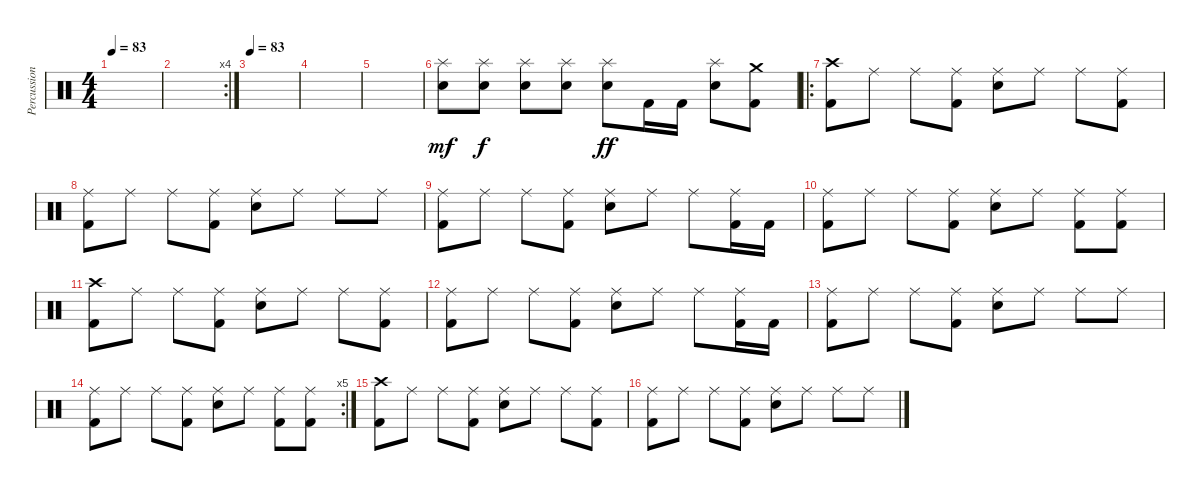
\track ("Percussions" "Percussion") {instrument percussion}
\staff {score}
\articulation defaults
\ts (4 4)
\tempo 83
\clef neutral
\ks c
|
\rc 4
|
\tempo 83
|
|
|
("Splash (hit)" "Electric Snare (hit)").8{dy mf} ("Splash (hit)" "Electric Snare (hit)").8{dy f} ("Splash (hit)" "Electric Snare (hit)").8 ("Splash (hit)" "Electric Snare (hit)").8 ("Splash (hit)" "Electric Snare (hit)").8{dy ff} "Kick (hit) 2".16 "Kick (hit) 2".16 ("Splash (hit)" "Electric Snare (hit)").8 ("Crash medium (hit)" "Kick (hit) 2").8 |
\ro
("Crash high (hit)" "Kick (hit) 2").8 "Ride (middle)".8 "Ride (middle)".8 ("Ride (middle)" "Kick (hit) 2").8 ("Ride (middle)" "Electric Snare (hit)").8 "Ride (middle)".8 "Ride (middle)".8 ("Ride (middle)" "Kick (hit) 2").8 |
("Ride (middle)" "Kick (hit) 2").8 "Ride (middle)".8 "Ride (middle)".8 ("Ride (middle)" "Kick (hit) 2").8 ("Ride (middle)" "Electric Snare (hit)").8 "Ride (middle)".8 "Ride (middle)".8 "Ride (middle)".8 |
("Ride (middle)" "Kick (hit) 2").8 "Ride (middle)".8 "Ride (middle)".8 ("Ride (middle)" "Kick (hit) 2").8 ("Ride (middle)" "Electric Snare (hit)").8 "Ride (middle)".8 "Ride (middle)".8 ("Ride (middle)" "Kick (hit) 2").16 "Kick (hit) 2".16 |
("Ride (middle)" "Kick (hit) 2").8 "Ride (middle)".8 "Ride (middle)".8 ("Ride (middle)" "Kick (hit) 2").8 ("Ride (middle)" "Electric Snare (hit)").8 "Ride (middle)".8 ("Ride (middle)" "Kick (hit) 2").8 ("Ride (middle)" "Kick (hit) 2").8 |
("Crash high (hit)" "Kick (hit) 2").8 "Ride (middle)".8 "Ride (middle)".8 ("Ride (middle)" "Kick (hit) 2").8 ("Ride (middle)" "Electric Snare (hit)").8 "Ride (middle)".8 "Ride (middle)".8 ("Ride (middle)" "Kick (hit) 2").8 |
("Ride (middle)" "Kick (hit) 2").8 "Ride (middle)".8 "Ride (middle)".8 ("Ride (middle)" "Kick (hit) 2").8 ("Ride (middle)" "Electric Snare (hit)").8 "Ride (middle)".8 "Ride (middle)".8 ("Ride (middle)" "Kick (hit) 2").16 "Kick (hit) 2".16 |
("Ride (middle)" "Kick (hit) 2").8 "Ride (middle)".8 "Ride (middle)".8 ("Ride (middle)" "Kick (hit) 2").8 ("Ride (middle)" "Electric Snare (hit)").8 "Ride (middle)".8 "Ride (middle)".8 "Ride (middle)".8 |
\rc 5
("Ride (middle)" "Kick (hit) 2").8 "Ride (middle)".8 "Ride (middle)".8 ("Ride (middle)" "Kick (hit) 2").8 ("Ride (middle)" "Electric Snare (hit)").8 "Ride (middle)".8 ("Ride (middle)" "Kick (hit) 2").8 ("Ride (middle)" "Kick (hit) 2").8 |
("Crash high (hit)" "Kick (hit) 2").8 "Ride (middle)".8 "Ride (middle)".8 ("Ride (middle)" "Kick (hit) 2").8 ("Ride (middle)" "Electric Snare (hit)").8 "Ride (middle)".8 "Ride (middle)".8 ("Ride (middle)" "Kick (hit) 2").8 |
("Ride (middle)" "Kick (hit) 2").8 "Ride (middle)".8 "Ride (middle)".8 ("Ride (middle)" "Kick (hit) 2").8 ("Ride (middle)" "Electric Snare (hit)").8 "Ride (middle)".8 "Ride (middle)".8 "Ride (middle)".8
